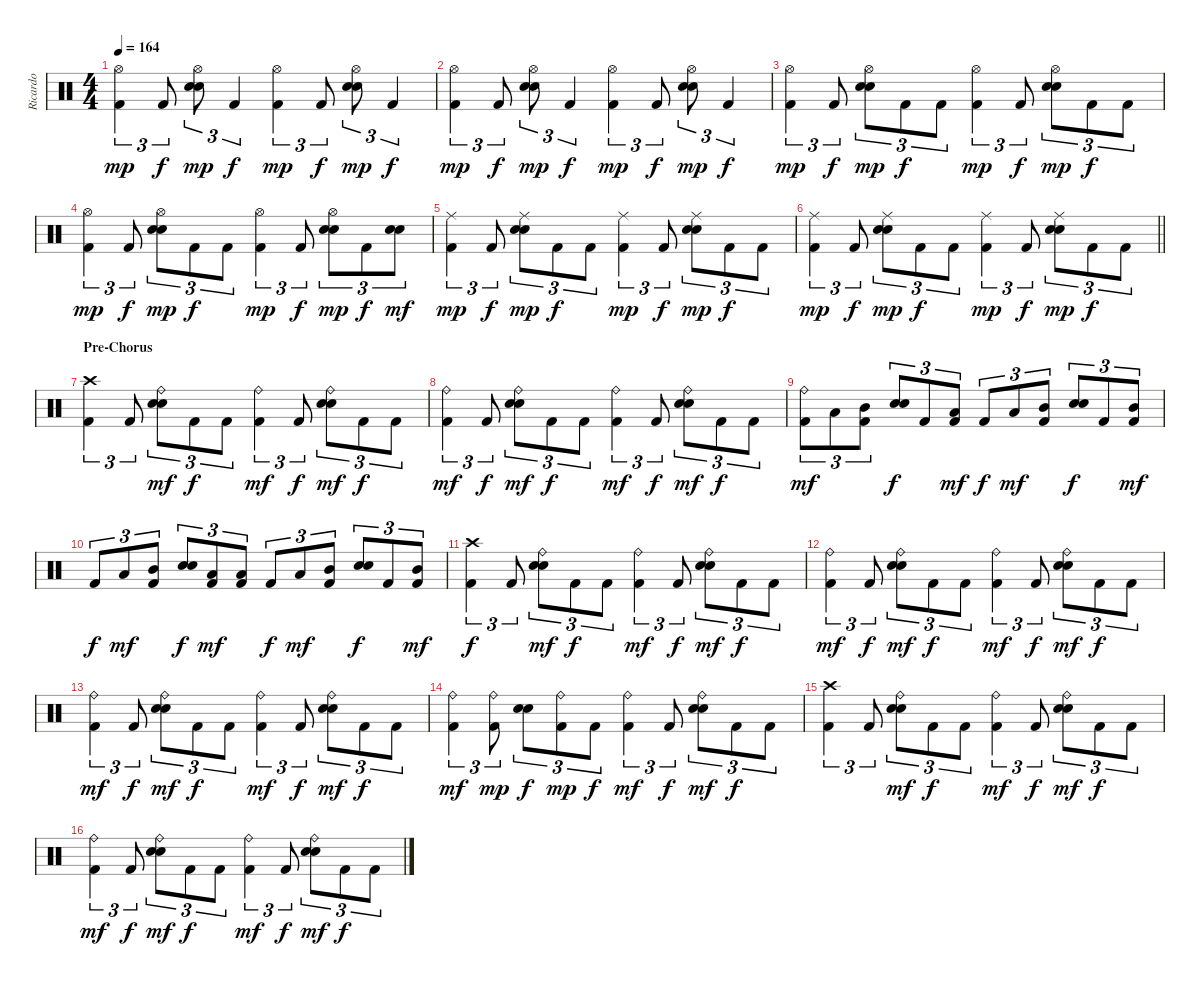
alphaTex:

\track ("Ricardo" "Ricardo") {instrument percussion}
\staff {score}
\articulation defaults
\ts (4 4)
\tempo 164
\clef neutral
\ks c
("Hi-Hat (open)" "Kick (hit) 2").4{tu (3 2) dy mp} "Kick (hit) 2".8{tu (3 2) dy f} ("Hi-Hat (open)" "Electric Snare (hit)" "Snare (hit) 2").8{tu (3 2) dy mp} "Kick (hit) 2".4{tu (3 2) dy f} ("Hi-Hat (open)" "Kick (hit) 2").4{tu (3 2) dy mp} "Kick (hit) 2".8{tu (3 2) dy f} ("Hi-Hat (open)" "Electric Snare (hit)" "Snare (hit) 2").8{tu (3 2) dy mp} "Kick (hit) 2".4{tu (3 2) dy f} |
("Hi-Hat (open)" "Kick (hit) 2").4{tu (3 2) dy mp} "Kick (hit) 2".8{tu (3 2) dy f} ("Hi-Hat (open)" "Electric Snare (hit)" "Snare (hit) 2").8{tu (3 2) dy mp} "Kick (hit) 2".4{tu (3 2) dy f} ("Hi-Hat (open)" "Kick (hit) 2").4{tu (3 2) dy mp} "Kick (hit) 2".8{tu (3 2) dy f} ("Hi-Hat (open)" "Electric Snare (hit)" "Snare (hit) 2").8{tu (3 2) dy mp} "Kick (hit) 2".4{tu (3 2) dy f} |
("Hi-Hat (open)" "Kick (hit) 2").4{tu (3 2) dy mp} "Kick (hit) 2".8{tu (3 2) dy f} ("Hi-Hat (open)" "Electric Snare (hit)" "Snare (hit) 2").8{tu (3 2) dy mp} "Kick (hit) 2".8{tu (3 2) dy f} "Kick (hit) 2".8{tu (3 2)} ("Hi-Hat (open)" "Kick (hit) 2").4{tu (3 2) dy mp} "Kick (hit) 2".8{tu (3 2) dy f} ("Hi-Hat (open)" "Electric Snare (hit)" "Snare (hit) 2").8{tu (3 2) dy mp} "Kick (hit) 2".8{tu (3 2) dy f} "Kick (hit) 2".8{tu (3 2)} |
("Hi-Hat (open)" "Kick (hit) 2").4{tu (3 2) dy mp} "Kick (hit) 2".8{tu (3 2) dy f} ("Hi-Hat (open)" "Electric Snare (hit)" "Snare (hit) 2").8{tu (3 2) dy mp} "Kick (hit) 2".8{tu (3 2) dy f} "Kick (hit) 2".8{tu (3 2)} ("Hi-Hat (open)" "Kick (hit) 2").4{tu (3 2) dy mp} "Kick (hit) 2".8{tu (3 2) dy f} ("Hi-Hat (open)" "Electric Snare (hit)" "Snare (hit) 2").8{tu (3 2) dy mp} "Kick (hit) 2".8{tu (3 2) dy f} ("Electric Snare (hit)" "Snare (hit) 2").8{tu (3 2) dy mf} |
("Ride (middle)" "Kick (hit) 2").4{tu (3 2) dy mp} "Kick (hit) 2".8{tu (3 2) dy f} ("Ride (middle)" "Electric Snare (hit)" "Snare (hit) 2").8{tu (3 2) dy mp} "Kick (hit) 2".8{tu (3 2) dy f} "Kick (hit) 2".8{tu (3 2)} ("Ride (middle)" "Kick (hit) 2").4{tu (3 2) dy mp} "Kick (hit) 2".8{tu (3 2) dy f} ("Ride (middle)" "Electric Snare (hit)" "Snare (hit) 2").8{tu (3 2) dy mp} "Kick (hit) 2".8{tu (3 2) dy f} "Kick (hit) 2".8{tu (3 2)} |
\barLineRight lightlight
("Ride (middle)" "Kick (hit) 2").4{tu (3 2) dy mp} "Kick (hit) 2".8{tu (3 2) dy f} ("Ride (middle)" "Electric Snare (hit)" "Snare (hit) 2").8{tu (3 2) dy mp} "Kick (hit) 2".8{tu (3 2) dy f} "Kick (hit) 2".8{tu (3 2)} ("Ride (middle)" "Kick (hit) 2").4{tu (3 2) dy mp} "Kick (hit) 2".8{tu (3 2) dy f} ("Ride (middle)" "Electric Snare (hit)" "Snare (hit) 2").8{tu (3 2) dy mp} "Kick (hit) 2".8{tu (3 2) dy f} "Kick (hit) 2".8{tu (3 2)} |
\section ("" "Pre-Chorus")
("Crash high (hit)" "Kick (hit) 2").4{tu (3 2)} "Kick (hit) 2".8{tu (3 2)} ("Ride (bell)" "Electric Snare (hit)" "Snare (hit) 2").8{tu (3 2) dy mf} "Kick (hit) 2".8{tu (3 2) dy f} "Kick (hit) 2".8{tu (3 2)} ("Ride (bell)" "Kick (hit) 2").4{tu (3 2) dy mf} "Kick (hit) 2".8{tu (3 2) dy f} ("Ride (bell)" "Electric Snare (hit)" "Snare (hit) 2").8{tu (3 2) dy mf} "Kick (hit) 2".8{tu (3 2) dy f} "Kick (hit) 2".8{tu (3 2)} |
("Ride (bell)" "Kick (hit) 2").4{tu (3 2) dy mf} "Kick (hit) 2".8{tu (3 2) dy f} ("Ride (bell)" "Electric Snare (hit)" "Snare (hit) 2").8{tu (3 2) dy mf} "Kick (hit) 2".8{tu (3 2) dy f} "Kick (hit) 2".8{tu (3 2)} ("Ride (bell)" "Kick (hit) 2").4{tu (3 2) dy mf} "Kick (hit) 2".8{tu (3 2) dy f} ("Ride (bell)" "Electric Snare (hit)" "Snare (hit) 2").8{tu (3 2) dy mf} "Kick (hit) 2".8{tu (3 2) dy f} "Kick (hit) 2".8{tu (3 2)} |
("Ride (bell)" "Kick (hit) 2").8{tu (3 2) dy mf} "Low Tom (hit)".8{tu (3 2)} ("Mid Tom (hit)" "Kick (hit) 2").8{tu (3 2)} ("Electric Snare (hit)" "Snare (hit) 2").8{tu (3 2) dy f} "Kick (hit) 2".8{tu (3 2)} ("Low Tom (hit)" "Kick (hit) 2").8{tu (3 2) dy mf} "Kick (hit) 2".8{tu (3 2) dy f} "Low Tom (hit)".8{tu (3 2) dy mf} ("Mid Tom (hit)" "Kick (hit) 2").8{tu (3 2)} ("Electric Snare (hit)" "Snare (hit) 2").8{tu (3 2) dy f} "Kick (hit) 2".8{tu (3 2)} ("Mid Tom (hit)" "Kick (hit) 2").8{tu (3 2) dy mf} |
"Kick (hit) 2".8{tu (3 2) dy f} "Low Tom (hit)".8{tu (3 2) dy mf} ("Mid Tom (hit)" "Kick (hit) 2").8{tu (3 2)} ("Electric Snare (hit)" "Snare (hit) 2").8{tu (3 2) dy f} ("Low Tom (hit)" "Kick (hit) 2").8{tu (3 2) dy mf} ("Low Tom (hit)" "Kick (hit) 2").8{tu (3 2)} "Kick (hit) 2".8{tu (3 2) dy f} "Low Tom (hit)".8{tu (3 2) dy mf} ("Mid Tom (hit)" "Kick (hit) 2").8{tu (3 2)} ("Electric Snare (hit)" "Snare (hit) 2").8{tu (3 2) dy f} "Kick (hit) 2".8{tu (3 2)} ("Mid Tom (hit)" "Kick (hit) 2").8{tu (3 2) dy mf} |
("Crash high (hit)" "Kick (hit) 2").4{tu (3 2) dy f} "Kick (hit) 2".8{tu (3 2)} ("Ride (bell)" "Electric Snare (hit)" "Snare (hit) 2").8{tu (3 2) dy mf} "Kick (hit) 2".8{tu (3 2) dy f} "Kick (hit) 2".8{tu (3 2)} ("Ride (bell)" "Kick (hit) 2").4{tu (3 2) dy mf} "Kick (hit) 2".8{tu (3 2) dy f} ("Ride (bell)" "Electric Snare (hit)" "Snare (hit) 2").8{tu (3 2) dy mf} "Kick (hit) 2".8{tu (3 2) dy f} "Kick (hit) 2".8{tu (3 2)} |
("Ride (bell)" "Kick (hit) 2").4{tu (3 2) dy mf} "Kick (hit) 2".8{tu (3 2) dy f} ("Ride (bell)" "Electric Snare (hit)" "Snare (hit) 2").8{tu (3 2) dy mf} "Kick (hit) 2".8{tu (3 2) dy f} "Kick (hit) 2".8{tu (3 2)} ("Ride (bell)" "Kick (hit) 2").4{tu (3 2) dy mf} "Kick (hit) 2".8{tu (3 2) dy f} ("Ride (bell)" "Electric Snare (hit)" "Snare (hit) 2").8{tu (3 2) dy mf} "Kick (hit) 2".8{tu (3 2) dy f} "Kick (hit) 2".8{tu (3 2)} |
("Ride (bell)" "Kick (hit) 2").4{tu (3 2) dy mf} "Kick (hit) 2".8{tu (3 2) dy f} ("Ride (bell)" "Electric Snare (hit)" "Snare (hit) 2").8{tu (3 2) dy mf} "Kick (hit) 2".8{tu (3 2) dy f} "Kick (hit) 2".8{tu (3 2)} ("Ride (bell)" "Kick (hit) 2").4{tu (3 2) dy mf} "Kick (hit) 2".8{tu (3 2) dy f} ("Ride (bell)" "Electric Snare (hit)" "Snare (hit) 2").8{tu (3 2) dy mf} "Kick (hit) 2".8{tu (3 2) dy f} "Kick (hit) 2".8{tu (3 2)} |
("Ride (bell)" "Kick (hit) 2").4{tu (3 2) dy mf} ("Ride (bell)" "Kick (hit) 2").8{tu (3 2) dy mp} ("Electric Snare (hit)" "Snare (hit) 2").8{tu (3 2) dy f} ("Ride (bell)" "Kick (hit) 2").8{tu (3 2) dy mp} "Kick (hit) 2".8{tu (3 2) dy f} ("Ride (bell)" "Kick (hit) 2").4{tu (3 2) dy mf} "Kick (hit) 2".8{tu (3 2) dy f} ("Ride (bell)" "Electric Snare (hit)" "Snare (hit) 2").8{tu (3 2) dy mf} "Kick (hit) 2".8{tu (3 2) dy f} "Kick (hit) 2".8{tu (3 2)} |
("Crash high (hit)" "Kick (hit) 2").4{tu (3 2)} "Kick (hit) 2".8{tu (3 2)} ("Ride (bell)" "Electric Snare (hit)" "Snare (hit) 2").8{tu (3 2) dy mf} "Kick (hit) 2".8{tu (3 2) dy f} "Kick (hit) 2".8{tu (3 2)} ("Ride (bell)" "Kick (hit) 2").4{tu (3 2) dy mf} "Kick (hit) 2".8{tu (3 2) dy f} ("Ride (bell)" "Electric Snare (hit)" "Snare (hit) 2").8{tu (3 2) dy mf} "Kick (hit) 2".8{tu (3 2) dy f} "Kick (hit) 2".8{tu (3 2)} |
("Ride (bell)" "Kick (hit) 2").4{tu (3 2) dy mf} "Kick (hit) 2".8{tu (3 2) dy f} ("Ride (bell)" "Electric Snare (hit)" "Snare (hit) 2").8{tu (3 2) dy mf} "Kick (hit) 2".8{tu (3 2) dy f} "Kick (hit) 2".8{tu (3 2)} ("Ride (bell)" "Kick (hit) 2").4{tu (3 2) dy mf} "Kick (hit) 2".8{tu (3 2) dy f} ("Ride (bell)" "Electric Snare (hit)" "Snare (hit) 2").8{tu (3 2) dy mf} "Kick (hit) 2".8{tu (3 2) dy f} "Kick (hit) 2".8{tu (3 2)}
